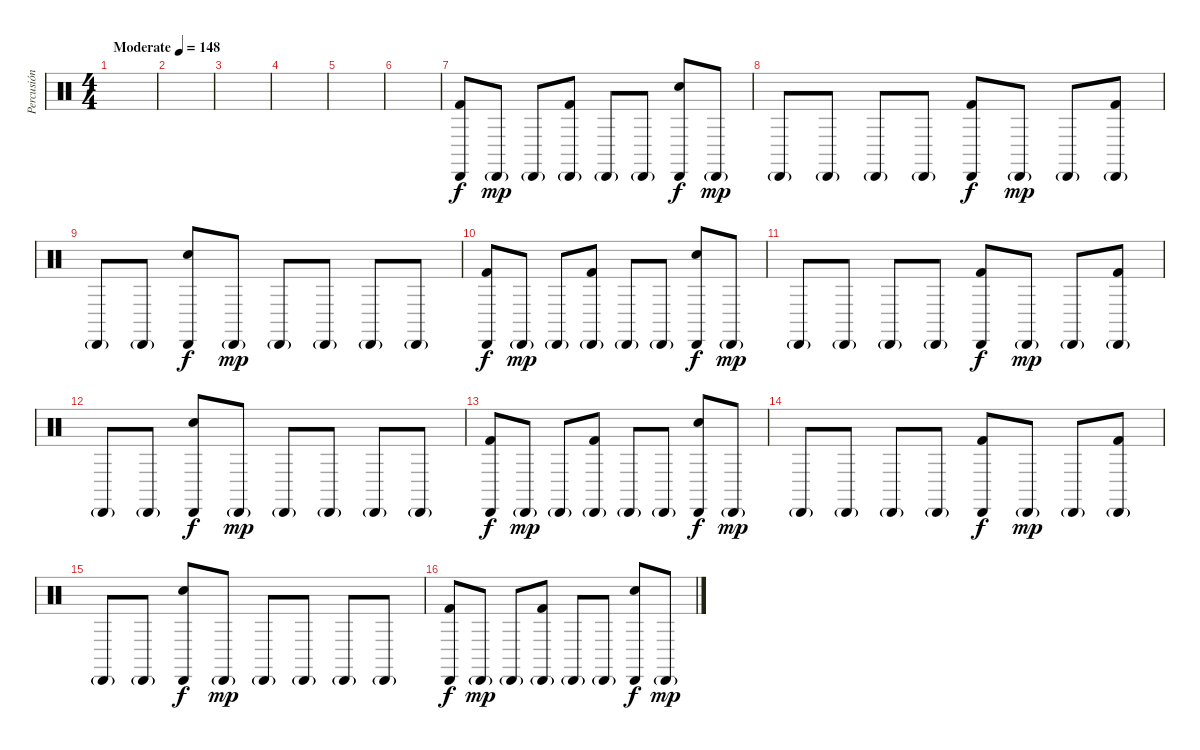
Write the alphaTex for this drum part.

\track ("Percusión" "Percusión") {instrument percussion}
\staff {score}
\articulation defaults
\ts (4 4)
\tempo (148 "Moderate")
\clef neutral
\ks c
|
|
|
|
|
|
("Kick (hit) 2" "Cabasa (hit)").8 "Cabasa (hit)"{g}.8{dy mp} "Cabasa (hit)"{g}.8 ("Kick (hit) 2" "Cabasa (hit)"{g}).8 "Cabasa (hit)"{g}.8 "Cabasa (hit)"{g}.8 ("Electric Snare (hit)" "Cabasa (hit)").8{dy f} "Cabasa (hit)"{g}.8{dy mp} |
"Cabasa (hit)"{g}.8 "Cabasa (hit)"{g}.8 "Cabasa (hit)"{g}.8 "Cabasa (hit)"{g}.8 ("Kick (hit) 2" "Cabasa (hit)").8{dy f} "Cabasa (hit)"{g}.8{dy mp} "Cabasa (hit)"{g}.8 ("Kick (hit) 2" "Cabasa (hit)"{g}).8 |
"Cabasa (hit)"{g}.8 "Cabasa (hit)"{g}.8 ("Electric Snare (hit)" "Cabasa (hit)").8{dy f} "Cabasa (hit)"{g}.8{dy mp} "Cabasa (hit)"{g}.8 "Cabasa (hit)"{g}.8 "Cabasa (hit)"{g}.8 "Cabasa (hit)"{g}.8 |
("Kick (hit) 2" "Cabasa (hit)").8{dy f} "Cabasa (hit)"{g}.8{dy mp} "Cabasa (hit)"{g}.8 ("Kick (hit) 2" "Cabasa (hit)"{g}).8 "Cabasa (hit)"{g}.8 "Cabasa (hit)"{g}.8 ("Electric Snare (hit)" "Cabasa (hit)").8{dy f} "Cabasa (hit)"{g}.8{dy mp} |
"Cabasa (hit)"{g}.8 "Cabasa (hit)"{g}.8 "Cabasa (hit)"{g}.8 "Cabasa (hit)"{g}.8 ("Kick (hit) 2" "Cabasa (hit)").8{dy f} "Cabasa (hit)"{g}.8{dy mp} "Cabasa (hit)"{g}.8 ("Kick (hit) 2" "Cabasa (hit)"{g}).8 |
"Cabasa (hit)"{g}.8 "Cabasa (hit)"{g}.8 ("Electric Snare (hit)" "Cabasa (hit)").8{dy f} "Cabasa (hit)"{g}.8{dy mp} "Cabasa (hit)"{g}.8 "Cabasa (hit)"{g}.8 "Cabasa (hit)"{g}.8 "Cabasa (hit)"{g}.8 |
("Kick (hit) 2" "Cabasa (hit)").8{dy f} "Cabasa (hit)"{g}.8{dy mp} "Cabasa (hit)"{g}.8 ("Kick (hit) 2" "Cabasa (hit)"{g}).8 "Cabasa (hit)"{g}.8 "Cabasa (hit)"{g}.8 ("Electric Snare (hit)" "Cabasa (hit)").8{dy f} "Cabasa (hit)"{g}.8{dy mp} |
"Cabasa (hit)"{g}.8 "Cabasa (hit)"{g}.8 "Cabasa (hit)"{g}.8 "Cabasa (hit)"{g}.8 ("Kick (hit) 2" "Cabasa (hit)").8{dy f} "Cabasa (hit)"{g}.8{dy mp} "Cabasa (hit)"{g}.8 ("Kick (hit) 2" "Cabasa (hit)"{g}).8 |
"Cabasa (hit)"{g}.8 "Cabasa (hit)"{g}.8 ("Electric Snare (hit)" "Cabasa (hit)").8{dy f} "Cabasa (hit)"{g}.8{dy mp} "Cabasa (hit)"{g}.8 "Cabasa (hit)"{g}.8 "Cabasa (hit)"{g}.8 "Cabasa (hit)"{g}.8 |
("Kick (hit) 2" "Cabasa (hit)").8{dy f} "Cabasa (hit)"{g}.8{dy mp} "Cabasa (hit)"{g}.8 ("Kick (hit) 2" "Cabasa (hit)"{g}).8 "Cabasa (hit)"{g}.8 "Cabasa (hit)"{g}.8 ("Electric Snare (hit)" "Cabasa (hit)").8{dy f} "Cabasa (hit)"{g}.8{dy mp}
